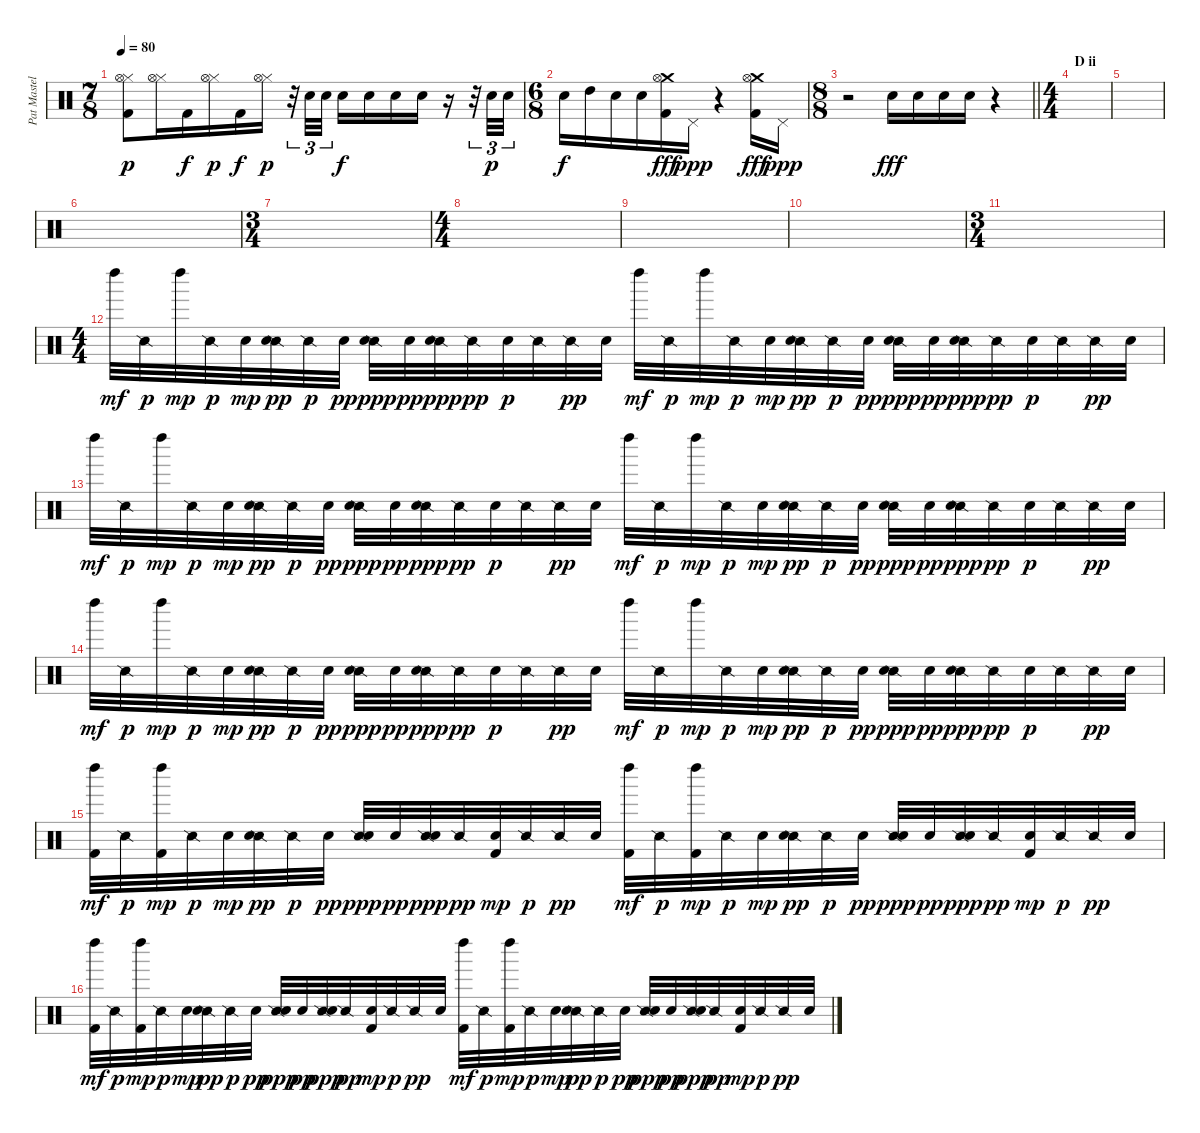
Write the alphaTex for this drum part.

\track ("Pat Mastelotto (Traps / Buttons)" "Pat Mastel") {instrument percussion}
\staff {score}
\articulation defaults
\ts (7 8)
\tempo 80
\clef neutral
\ks c
("Hi-Hat (closed)" "Hi-Hat (open)" "Kick (hit) 2").8{dy p} ("Hi-Hat (closed)" "Hi-Hat (open)").16 "Kick (hit) 2".16{dy f} ("Hi-Hat (closed)" "Hi-Hat (open)").16{dy p} "Kick (hit) 2".16{dy f} ("Hi-Hat (closed)" "Hi-Hat (open)").16{dy p} r.32{tu (3 2)} "Electric Snare (hit)".32{tu (3 2)} "Electric Snare (hit)".32{tu (3 2)} "Electric Snare (hit)".16{dy f} "Electric Snare (hit)".16 "Electric Snare (hit)".16 "Electric Snare (hit)".16 r.16 r.32{tu (3 2)} "Electric Snare (hit)".32{tu (3 2) dy p} "Electric Snare (hit)".32{tu (3 2)} |
\ts (6 8)
"Electric Snare (hit)".16{dy f} "High Tom (hit)".16 "Electric Snare (hit)".16 "Electric Snare (hit)".16 ("Crash medium (hit)" "Hi-Hat (open)" "Kick (hit) 2").16{dy fff} "Pedal Hi-Hat (hit)".16{dy ppp} r.4 ("Crash medium (hit)" "Hi-Hat (open)" "Kick (hit) 2").16{dy fff} "Pedal Hi-Hat (hit)".16{dy ppp} |
\ts (8 8)
\barLineRight lightlight
r.2 "Electric Snare (hit)".16{dy fff} "Electric Snare (hit)".16 "Electric Snare (hit)".16 "Electric Snare (hit)".16 r.4 |
\ts (4 4)
\section ("" "D ii")
|
|
|
\ts (3 4)
|
\ts (4 4)
|
|
|
\ts (3 4)
|
\ts (4 4)
"Left Maraca (hit)".32{dy mf volume 6} "Snare (side stick) 2".32{dy p} "Left Maraca (hit)".32{dy mp} "Snare (side stick) 2".32{dy p} "Electric Snare (hit)".32{dy mp} ("Snare (side stick) 2" "Electric Snare (hit)").32{dy pp} "Snare (side stick) 2".32{dy p} "Electric Snare (hit)".32{dy pp} ("Snare (side stick) 2" "Electric Snare (hit)").32{dy ppp} "Electric Snare (hit)".32{dy pp} ("Snare (side stick) 2" "Electric Snare (hit)").32{dy ppp} "Snare (side stick) 2".32{dy pp} "Electric Snare (hit)".32{dy p} "Snare (side stick) 2".32 "Snare (side stick) 2".32{dy pp} "Electric Snare (hit)".32 "Left Maraca (hit)".32{dy mf} "Snare (side stick) 2".32{dy p} "Left Maraca (hit)".32{dy mp} "Snare (side stick) 2".32{dy p} "Electric Snare (hit)".32{dy mp} ("Snare (side stick) 2" "Electric Snare (hit)").32{dy pp} "Snare (side stick) 2".32{dy p} "Electric Snare (hit)".32{dy pp} ("Snare (side stick) 2" "Electric Snare (hit)").32{dy ppp} "Electric Snare (hit)".32{dy pp} ("Snare (side stick) 2" "Electric Snare (hit)").32{dy ppp} "Snare (side stick) 2".32{dy pp} "Electric Snare (hit)".32{dy p} "Snare (side stick) 2".32 "Snare (side stick) 2".32{dy pp} "Electric Snare (hit)".32 |
"Left Maraca (hit)".32{dy mf} "Snare (side stick) 2".32{dy p} "Left Maraca (hit)".32{dy mp} "Snare (side stick) 2".32{dy p} "Electric Snare (hit)".32{dy mp} ("Snare (side stick) 2" "Electric Snare (hit)").32{dy pp} "Snare (side stick) 2".32{dy p} "Electric Snare (hit)".32{dy pp} ("Snare (side stick) 2" "Electric Snare (hit)").32{dy ppp} "Electric Snare (hit)".32{dy pp} ("Snare (side stick) 2" "Electric Snare (hit)").32{dy ppp} "Snare (side stick) 2".32{dy pp} "Electric Snare (hit)".32{dy p} "Snare (side stick) 2".32 "Snare (side stick) 2".32{dy pp} "Electric Snare (hit)".32 "Left Maraca (hit)".32{dy mf} "Snare (side stick) 2".32{dy p} "Left Maraca (hit)".32{dy mp} "Snare (side stick) 2".32{dy p} "Electric Snare (hit)".32{dy mp} ("Snare (side stick) 2" "Electric Snare (hit)").32{dy pp} "Snare (side stick) 2".32{dy p} "Electric Snare (hit)".32{dy pp} ("Snare (side stick) 2" "Electric Snare (hit)").32{dy ppp} "Electric Snare (hit)".32{dy pp} ("Snare (side stick) 2" "Electric Snare (hit)").32{dy ppp} "Snare (side stick) 2".32{dy pp} "Electric Snare (hit)".32{dy p} "Snare (side stick) 2".32 "Snare (side stick) 2".32{dy pp} "Electric Snare (hit)".32 |
"Left Maraca (hit)".32{dy mf} "Snare (side stick) 2".32{dy p} "Left Maraca (hit)".32{dy mp} "Snare (side stick) 2".32{dy p} "Electric Snare (hit)".32{dy mp} ("Snare (side stick) 2" "Electric Snare (hit)").32{dy pp} "Snare (side stick) 2".32{dy p} "Electric Snare (hit)".32{dy pp} ("Snare (side stick) 2" "Electric Snare (hit)").32{dy ppp} "Electric Snare (hit)".32{dy pp} ("Snare (side stick) 2" "Electric Snare (hit)").32{dy ppp} "Snare (side stick) 2".32{dy pp} "Electric Snare (hit)".32{dy p} "Snare (side stick) 2".32 "Snare (side stick) 2".32{dy pp} "Electric Snare (hit)".32 "Left Maraca (hit)".32{dy mf} "Snare (side stick) 2".32{dy p} "Left Maraca (hit)".32{dy mp} "Snare (side stick) 2".32{dy p} "Electric Snare (hit)".32{dy mp} ("Snare (side stick) 2" "Electric Snare (hit)").32{dy pp} "Snare (side stick) 2".32{dy p} "Electric Snare (hit)".32{dy pp} ("Snare (side stick) 2" "Electric Snare (hit)").32{dy ppp} "Electric Snare (hit)".32{dy pp} ("Snare (side stick) 2" "Electric Snare (hit)").32{dy ppp} "Snare (side stick) 2".32{dy pp} "Electric Snare (hit)".32{dy p} "Snare (side stick) 2".32 "Snare (side stick) 2".32{dy pp} "Electric Snare (hit)".32 |
("Left Maraca (hit)" "Kick (hit) 2").32{dy mf} "Snare (side stick) 2".32{dy p} ("Left Maraca (hit)" "Kick (hit) 2").32{dy mp} "Snare (side stick) 2".32{dy p} "Electric Snare (hit)".32{dy mp} ("Snare (side stick) 2" "Electric Snare (hit)").32{dy pp} "Snare (side stick) 2".32{dy p} "Electric Snare (hit)".32{dy pp} ("Snare (side stick) 2" "Electric Snare (hit)").32{dy ppp} "Electric Snare (hit)".32{dy pp} ("Snare (side stick) 2" "Electric Snare (hit)").32{dy ppp} "Snare (side stick) 2".32{dy pp} ("Electric Snare (hit)" "Kick (hit) 2").32{dy mp} "Snare (side stick) 2".32{dy p} "Snare (side stick) 2".32{dy pp} "Electric Snare (hit)".32 ("Left Maraca (hit)" "Kick (hit) 2").32{dy mf} "Snare (side stick) 2".32{dy p} ("Left Maraca (hit)" "Kick (hit) 2").32{dy mp} "Snare (side stick) 2".32{dy p} "Electric Snare (hit)".32{dy mp} ("Snare (side stick) 2" "Electric Snare (hit)").32{dy pp} "Snare (side stick) 2".32{dy p} "Electric Snare (hit)".32{dy pp} ("Snare (side stick) 2" "Electric Snare (hit)").32{dy ppp} "Electric Snare (hit)".32{dy pp} ("Snare (side stick) 2" "Electric Snare (hit)").32{dy ppp} "Snare (side stick) 2".32{dy pp} ("Electric Snare (hit)" "Kick (hit) 2").32{dy mp} "Snare (side stick) 2".32{dy p} "Snare (side stick) 2".32{dy pp} "Electric Snare (hit)".32 |
("Left Maraca (hit)" "Kick (hit) 2").32{dy mf} "Snare (side stick) 2".32{dy p} ("Left Maraca (hit)" "Kick (hit) 2").32{dy mp} "Snare (side stick) 2".32{dy p} "Electric Snare (hit)".32{dy mp} ("Snare (side stick) 2" "Electric Snare (hit)").32{dy pp} "Snare (side stick) 2".32{dy p} "Electric Snare (hit)".32{dy pp} ("Snare (side stick) 2" "Electric Snare (hit)").32{dy ppp} "Electric Snare (hit)".32{dy pp} ("Snare (side stick) 2" "Electric Snare (hit)").32{dy ppp} "Snare (side stick) 2".32{dy pp} ("Electric Snare (hit)" "Kick (hit) 2").32{dy mp} "Snare (side stick) 2".32{dy p} "Snare (side stick) 2".32{dy pp} "Electric Snare (hit)".32 ("Left Maraca (hit)" "Kick (hit) 2").32{dy mf} "Snare (side stick) 2".32{dy p} ("Left Maraca (hit)" "Kick (hit) 2").32{dy mp} "Snare (side stick) 2".32{dy p} "Electric Snare (hit)".32{dy mp} ("Snare (side stick) 2" "Electric Snare (hit)").32{dy pp} "Snare (side stick) 2".32{dy p} "Electric Snare (hit)".32{dy pp} ("Snare (side stick) 2" "Electric Snare (hit)").32{dy ppp} "Electric Snare (hit)".32{dy pp} ("Snare (side stick) 2" "Electric Snare (hit)").32{dy ppp} "Snare (side stick) 2".32{dy pp} ("Electric Snare (hit)" "Kick (hit) 2").32{dy mp} "Snare (side stick) 2".32{dy p} "Snare (side stick) 2".32{dy pp} "Electric Snare (hit)".32
